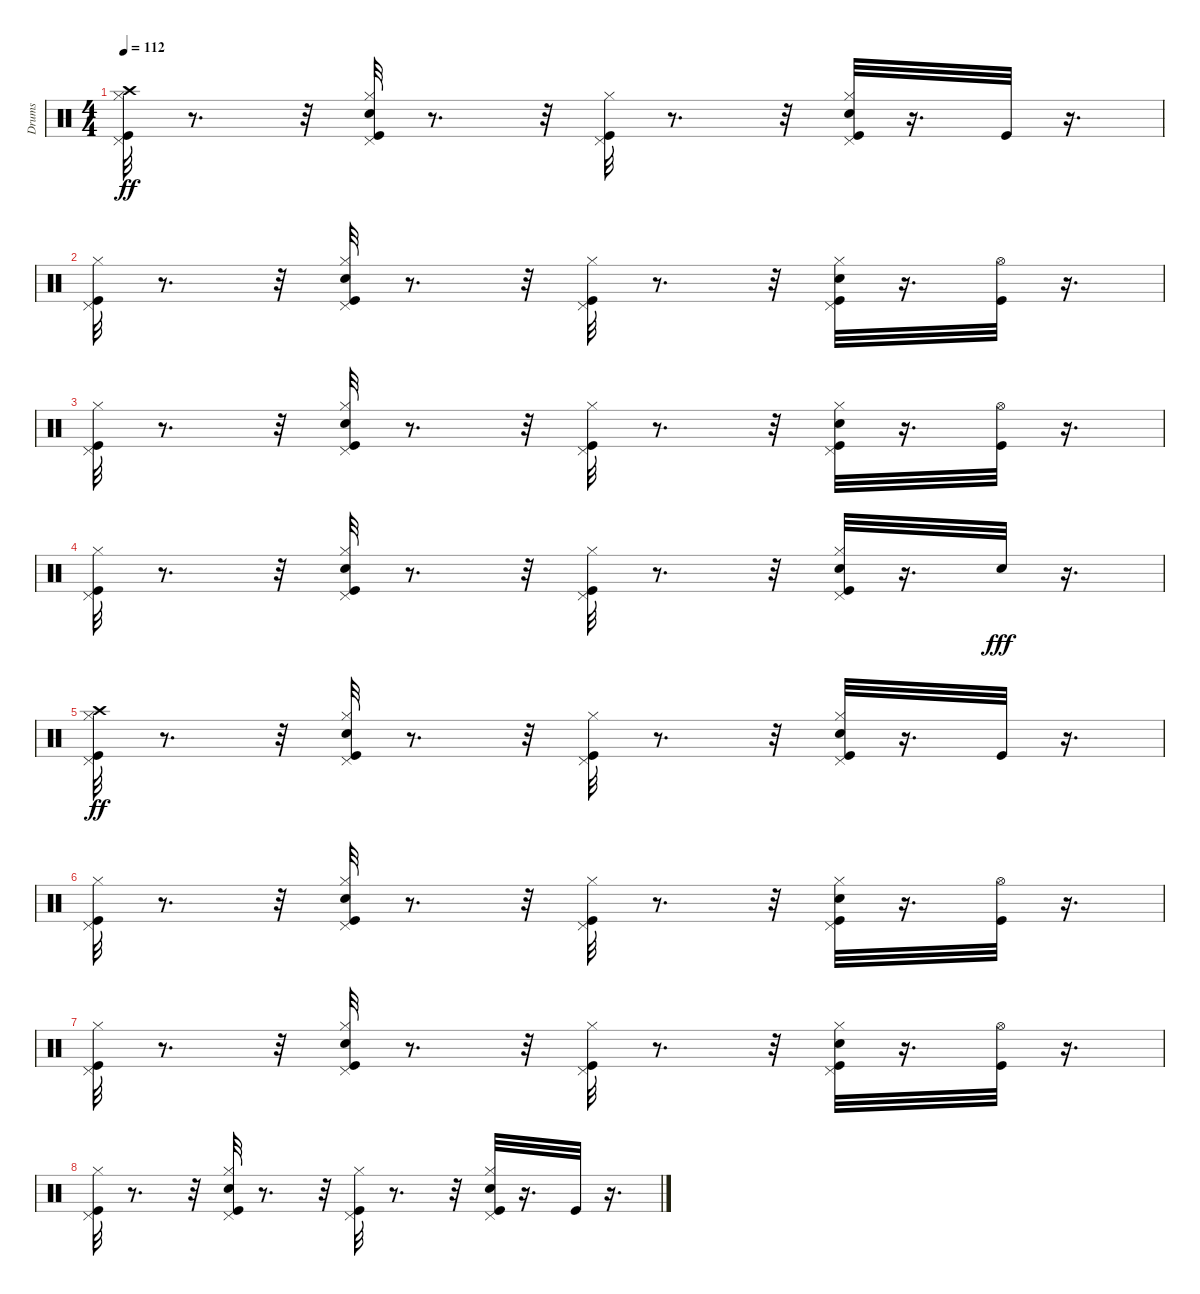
\track ("Drums" "Drums") {instrument percussion}
\staff {score}
\articulation defaults
\ts (4 4)
\tempo 112
\clef neutral
\ks c
("Crash high (hit)" "Kick (hit)" "Pedal Hi-Hat (hit)" "Hi-Hat (closed)").32{dy ff} r.8{d} r.32 ("Pedal Hi-Hat (hit)" "Kick (hit)" "Snare (hit) 2" "Hi-Hat (closed)").32 r.8{d} r.32 ("Pedal Hi-Hat (hit)" "Hi-Hat (closed)" "Kick (hit)").32 r.8{d} r.32 ("Hi-Hat (closed)" "Kick (hit)" "Snare (hit) 2" "Pedal Hi-Hat (hit)").32 r.16{d} "Kick (hit)".32 r.16{d} |
("Kick (hit)" "Pedal Hi-Hat (hit)" "Hi-Hat (closed)").32 r.8{d} r.32 ("Hi-Hat (closed)" "Snare (hit) 2" "Kick (hit)" "Pedal Hi-Hat (hit)").32 r.8{d} r.32 ("Pedal Hi-Hat (hit)" "Hi-Hat (closed)" "Kick (hit)").32 r.8{d} r.32 ("Pedal Hi-Hat (hit)" "Hi-Hat (closed)" "Kick (hit)" "Snare (hit) 2").32 r.16{d} ("Hi-Hat (open)" "Kick (hit)").32 r.16{d} |
("Pedal Hi-Hat (hit)" "Hi-Hat (closed)" "Kick (hit)").32 r.8{d} r.32 ("Kick (hit)" "Snare (hit) 2" "Pedal Hi-Hat (hit)" "Hi-Hat (closed)").32 r.8{d} r.32 ("Kick (hit)" "Pedal Hi-Hat (hit)" "Hi-Hat (closed)").32 r.8{d} r.32 ("Hi-Hat (closed)" "Kick (hit)" "Pedal Hi-Hat (hit)" "Snare (hit) 2").32 r.16{d} ("Hi-Hat (open)" "Kick (hit)").32 r.16{d} |
("Hi-Hat (closed)" "Pedal Hi-Hat (hit)" "Kick (hit)").32 r.8{d} r.32 ("Snare (hit) 2" "Pedal Hi-Hat (hit)" "Kick (hit)" "Hi-Hat (closed)").32 r.8{d} r.32 ("Pedal Hi-Hat (hit)" "Kick (hit)" "Hi-Hat (closed)").32 r.8{d} r.32 ("Pedal Hi-Hat (hit)" "Hi-Hat (closed)" "Kick (hit)" "Snare (hit) 2").32 r.16{d} "Snare (hit) 2".32{dy fff} r.16{d} |
("Kick (hit)" "Hi-Hat (closed)" "Crash high (hit)" "Pedal Hi-Hat (hit)").32{dy ff} r.8{d} r.32 ("Kick (hit)" "Pedal Hi-Hat (hit)" "Snare (hit) 2" "Hi-Hat (closed)").32 r.8{d} r.32 ("Pedal Hi-Hat (hit)" "Hi-Hat (closed)" "Kick (hit)").32 r.8{d} r.32 ("Kick (hit)" "Hi-Hat (closed)" "Snare (hit) 2" "Pedal Hi-Hat (hit)").32 r.16{d} "Kick (hit)".32 r.16{d} |
("Kick (hit)" "Hi-Hat (closed)" "Pedal Hi-Hat (hit)").32 r.8{d} r.32 ("Hi-Hat (closed)" "Pedal Hi-Hat (hit)" "Snare (hit) 2" "Kick (hit)").32 r.8{d} r.32 ("Pedal Hi-Hat (hit)" "Kick (hit)" "Hi-Hat (closed)").32 r.8{d} r.32 ("Hi-Hat (closed)" "Snare (hit) 2" "Kick (hit)" "Pedal Hi-Hat (hit)").32 r.16{d} ("Hi-Hat (open)" "Kick (hit)").32 r.16{d} |
("Hi-Hat (closed)" "Pedal Hi-Hat (hit)" "Kick (hit)").32 r.8{d} r.32 ("Hi-Hat (closed)" "Snare (hit) 2" "Pedal Hi-Hat (hit)" "Kick (hit)").32 r.8{d} r.32 ("Hi-Hat (closed)" "Kick (hit)" "Pedal Hi-Hat (hit)").32 r.8{d} r.32 ("Kick (hit)" "Snare (hit) 2" "Hi-Hat (closed)" "Pedal Hi-Hat (hit)").32 r.16{d} ("Hi-Hat (open)" "Kick (hit)").32 r.16{d} |
("Kick (hit)" "Hi-Hat (closed)" "Pedal Hi-Hat (hit)").32 r.8{d} r.32 ("Snare (hit) 2" "Pedal Hi-Hat (hit)" "Kick (hit)" "Hi-Hat (closed)").32 r.8{d} r.32 ("Hi-Hat (closed)" "Pedal Hi-Hat (hit)" "Kick (hit)").32 r.8{d} r.32 ("Snare (hit) 2" "Kick (hit)" "Pedal Hi-Hat (hit)" "Hi-Hat (closed)").32 r.16{d} "Kick (hit)".32 r.16{d}
